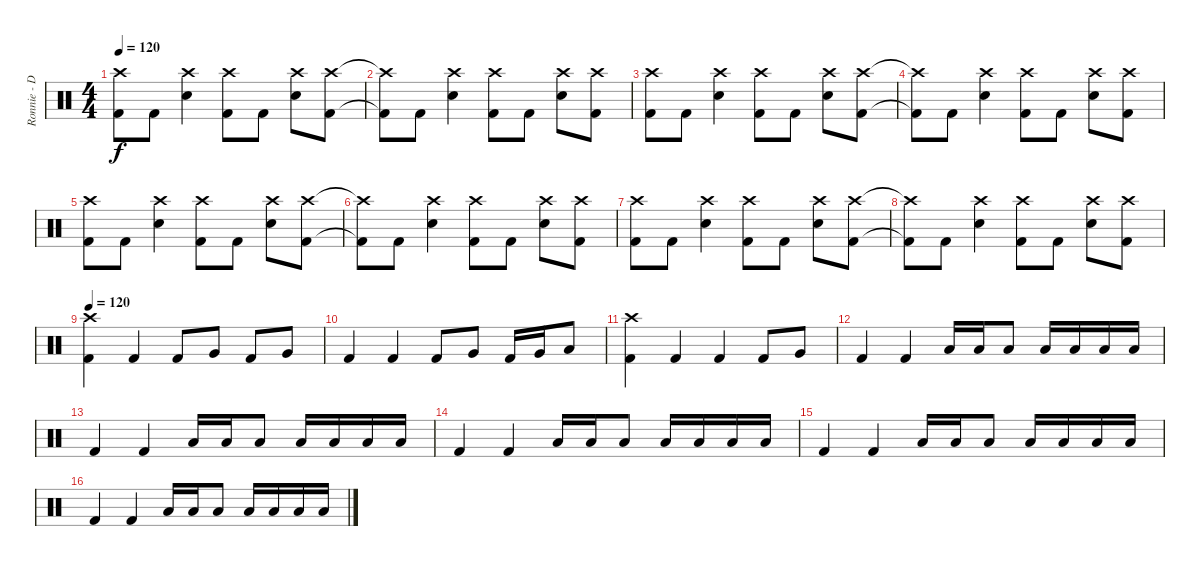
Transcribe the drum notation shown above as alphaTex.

\track ("Ronnie - Drums" "Ronnie - D") {instrument percussion}
\staff {score}
\articulation defaults
\ts (4 4)
\tempo 120
\clef neutral
\ks c
("Crash high (hit)" "Kick (hit) 2").8{dy f} "Kick (hit) 2".8 ("Crash high (hit)" "Snare (hit) 2").4 ("Crash high (hit)" "Kick (hit) 2").8 "Kick (hit) 2".8 ("Crash high (hit)" "Snare (hit) 2").8 ("Crash high (hit)" "Kick (hit) 2").8 |
("Crash high (hit)"{t} "Kick (hit) 2"{t}).8 "Kick (hit) 2".8 ("Crash high (hit)" "Snare (hit) 2").4 ("Crash high (hit)" "Kick (hit) 2").8 "Kick (hit) 2".8 ("Crash high (hit)" "Snare (hit) 2").8 ("Crash high (hit)" "Kick (hit) 2").8 |
("Crash high (hit)" "Kick (hit) 2").8 "Kick (hit) 2".8 ("Crash high (hit)" "Snare (hit) 2").4 ("Crash high (hit)" "Kick (hit) 2").8 "Kick (hit) 2".8 ("Crash high (hit)" "Snare (hit) 2").8 ("Crash high (hit)" "Kick (hit) 2").8 |
("Crash high (hit)"{t} "Kick (hit) 2"{t}).8 "Kick (hit) 2".8 ("Crash high (hit)" "Snare (hit) 2").4 ("Crash high (hit)" "Kick (hit) 2").8 "Kick (hit) 2".8 ("Crash high (hit)" "Snare (hit) 2").8 ("Crash high (hit)" "Kick (hit) 2").8 |
("Crash high (hit)" "Kick (hit) 2").8 "Kick (hit) 2".8 ("Crash high (hit)" "Snare (hit) 2").4 ("Crash high (hit)" "Kick (hit) 2").8 "Kick (hit) 2".8 ("Crash high (hit)" "Snare (hit) 2").8 ("Crash high (hit)" "Kick (hit) 2").8 |
("Crash high (hit)"{t} "Kick (hit) 2"{t}).8 "Kick (hit) 2".8 ("Crash high (hit)" "Snare (hit) 2").4 ("Crash high (hit)" "Kick (hit) 2").8 "Kick (hit) 2".8 ("Crash high (hit)" "Snare (hit) 2").8 ("Crash high (hit)" "Kick (hit) 2").8 |
("Crash high (hit)" "Kick (hit) 2").8 "Kick (hit) 2".8 ("Crash high (hit)" "Snare (hit) 2").4 ("Crash high (hit)" "Kick (hit) 2").8 "Kick (hit) 2".8 ("Crash high (hit)" "Snare (hit) 2").8 ("Crash high (hit)" "Kick (hit) 2").8 |
("Crash high (hit)"{t} "Kick (hit) 2"{t}).8 "Kick (hit) 2".8 ("Crash high (hit)" "Snare (hit) 2").4 ("Crash high (hit)" "Kick (hit) 2").8 "Kick (hit) 2".8 ("Crash high (hit)" "Snare (hit) 2").8 ("Crash high (hit)" "Kick (hit) 2").8 |
\tempo 120
("Kick (hit) 2" "Crash high (hit)").4 "Kick (hit) 2".4 "Kick (hit) 2".8 "Very Low Tom (hit)".8 "Kick (hit) 2".8 "Very Low Tom (hit)".8 |
"Kick (hit) 2".4 "Kick (hit) 2".4 "Kick (hit) 2".8 "Very Low Tom (hit)".8 "Kick (hit) 2".16 "Very Low Tom (hit)".16 "Low Floor Tom (hit)".8 |
("Kick (hit) 2" "Crash high (hit)").4 "Kick (hit) 2".4 "Kick (hit) 2".4 "Kick (hit) 2".8 "Very Low Tom (hit)".8 |
"Kick (hit) 2".4 "Kick (hit) 2".4 "Low Tom (hit)".16 "Low Tom (hit)".16 "Low Tom (hit)".8 "Low Tom (hit)".16 "Low Tom (hit)".16 "Low Tom (hit)".16 "Low Tom (hit)".16 |
"Kick (hit) 2".4 "Kick (hit) 2".4 "Low Tom (hit)".16 "Low Tom (hit)".16 "Low Tom (hit)".8 "Low Tom (hit)".16 "Low Tom (hit)".16 "Low Tom (hit)".16 "Low Tom (hit)".16 |
"Kick (hit) 2".4 "Kick (hit) 2".4 "Low Tom (hit)".16 "Low Tom (hit)".16 "Low Tom (hit)".8 "Low Tom (hit)".16 "Low Tom (hit)".16 "Low Tom (hit)".16 "Low Tom (hit)".16 |
"Kick (hit) 2".4 "Kick (hit) 2".4 "Low Tom (hit)".16 "Low Tom (hit)".16 "Low Tom (hit)".8 "Low Tom (hit)".16 "Low Tom (hit)".16 "Low Tom (hit)".16 "Low Tom (hit)".16 |
"Kick (hit) 2".4 "Kick (hit) 2".4 "Low Tom (hit)".16 "Low Tom (hit)".16 "Low Tom (hit)".8 "Low Tom (hit)".16 "Low Tom (hit)".16 "Low Tom (hit)".16 "Low Tom (hit)".16
